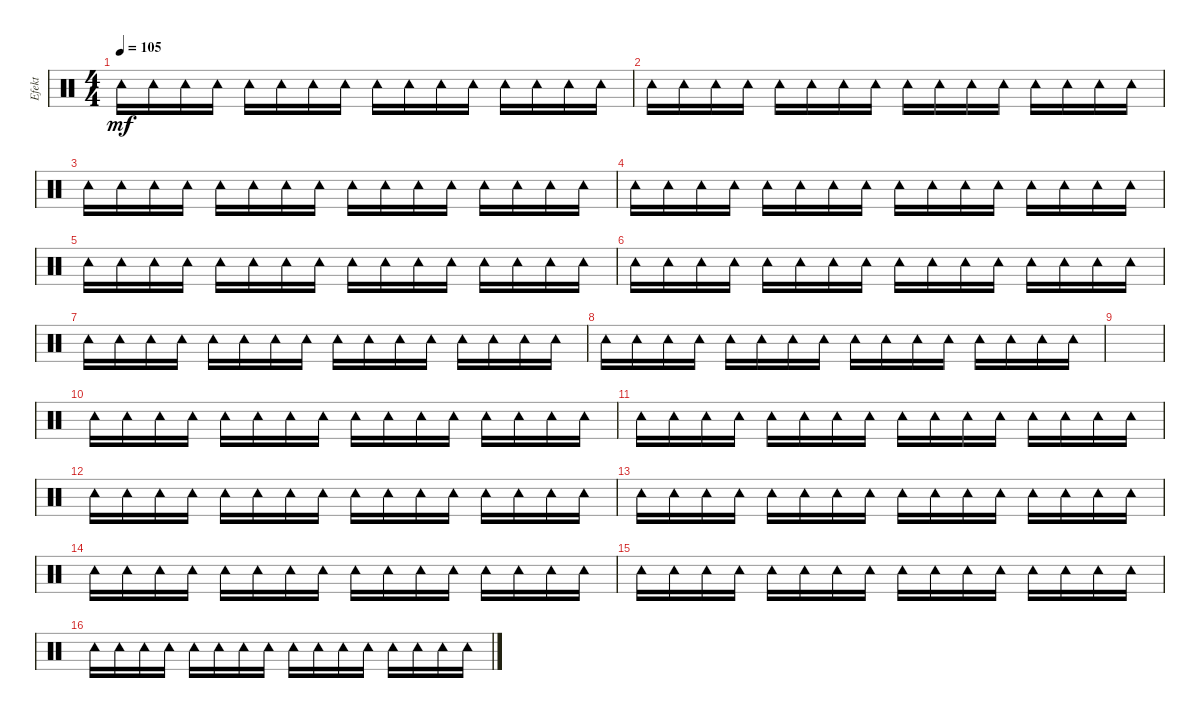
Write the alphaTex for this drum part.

\track ("Efekt" "Efekt") {instrument percussion}
\staff {score}
\articulation defaults
\ts (4 4)
\tempo 105
\clef neutral
\ks c "Tambourine (hit)".16{dy mf} "Tambourine (hit)".16 "Tambourine (hit)".16 "Tambourine (hit)".16 "Tambourine (hit)".16 "Tambourine (hit)".16 "Tambourine (hit)".16 "Tambourine (hit)".16 "Tambourine (hit)".16 "Tambourine (hit)".16 "Tambourine (hit)".16 "Tambourine (hit)".16 "Tambourine (hit)".16 "Tambourine (hit)".16 "Tambourine (hit)".16 "Tambourine (hit)".16
|
"Tambourine (hit)".16 "Tambourine (hit)".16 "Tambourine (hit)".16 "Tambourine (hit)".16 "Tambourine (hit)".16 "Tambourine (hit)".16 "Tambourine (hit)".16 "Tambourine (hit)".16 "Tambourine (hit)".16 "Tambourine (hit)".16 "Tambourine (hit)".16 "Tambourine (hit)".16 "Tambourine (hit)".16 "Tambourine (hit)".16 "Tambourine (hit)".16 "Tambourine (hit)".16 |
"Tambourine (hit)".16 "Tambourine (hit)".16 "Tambourine (hit)".16 "Tambourine (hit)".16 "Tambourine (hit)".16 "Tambourine (hit)".16 "Tambourine (hit)".16 "Tambourine (hit)".16 "Tambourine (hit)".16 "Tambourine (hit)".16 "Tambourine (hit)".16 "Tambourine (hit)".16 "Tambourine (hit)".16 "Tambourine (hit)".16 "Tambourine (hit)".16 "Tambourine (hit)".16 |
"Tambourine (hit)".16 "Tambourine (hit)".16 "Tambourine (hit)".16 "Tambourine (hit)".16 "Tambourine (hit)".16 "Tambourine (hit)".16 "Tambourine (hit)".16 "Tambourine (hit)".16 "Tambourine (hit)".16 "Tambourine (hit)".16 "Tambourine (hit)".16 "Tambourine (hit)".16 "Tambourine (hit)".16 "Tambourine (hit)".16 "Tambourine (hit)".16 "Tambourine (hit)".16 |
"Tambourine (hit)".16 "Tambourine (hit)".16 "Tambourine (hit)".16 "Tambourine (hit)".16 "Tambourine (hit)".16 "Tambourine (hit)".16 "Tambourine (hit)".16 "Tambourine (hit)".16 "Tambourine (hit)".16 "Tambourine (hit)".16 "Tambourine (hit)".16 "Tambourine (hit)".16 "Tambourine (hit)".16 "Tambourine (hit)".16 "Tambourine (hit)".16 "Tambourine (hit)".16 |
"Tambourine (hit)".16 "Tambourine (hit)".16 "Tambourine (hit)".16 "Tambourine (hit)".16 "Tambourine (hit)".16 "Tambourine (hit)".16 "Tambourine (hit)".16 "Tambourine (hit)".16 "Tambourine (hit)".16 "Tambourine (hit)".16 "Tambourine (hit)".16 "Tambourine (hit)".16 "Tambourine (hit)".16 "Tambourine (hit)".16 "Tambourine (hit)".16 "Tambourine (hit)".16 |
"Tambourine (hit)".16 "Tambourine (hit)".16 "Tambourine (hit)".16 "Tambourine (hit)".16 "Tambourine (hit)".16 "Tambourine (hit)".16 "Tambourine (hit)".16 "Tambourine (hit)".16 "Tambourine (hit)".16 "Tambourine (hit)".16 "Tambourine (hit)".16 "Tambourine (hit)".16 "Tambourine (hit)".16 "Tambourine (hit)".16 "Tambourine (hit)".16 "Tambourine (hit)".16 |
"Tambourine (hit)".16 "Tambourine (hit)".16 "Tambourine (hit)".16 "Tambourine (hit)".16 "Tambourine (hit)".16 "Tambourine (hit)".16 "Tambourine (hit)".16 "Tambourine (hit)".16 "Tambourine (hit)".16 "Tambourine (hit)".16 "Tambourine (hit)".16 "Tambourine (hit)".16 "Tambourine (hit)".16 "Tambourine (hit)".16 "Tambourine (hit)".16 "Tambourine (hit)".16 |
|
"Tambourine (hit)".16 "Tambourine (hit)".16 "Tambourine (hit)".16 "Tambourine (hit)".16 "Tambourine (hit)".16 "Tambourine (hit)".16 "Tambourine (hit)".16 "Tambourine (hit)".16 "Tambourine (hit)".16 "Tambourine (hit)".16 "Tambourine (hit)".16 "Tambourine (hit)".16 "Tambourine (hit)".16 "Tambourine (hit)".16 "Tambourine (hit)".16 "Tambourine (hit)".16 |
"Tambourine (hit)".16 "Tambourine (hit)".16 "Tambourine (hit)".16 "Tambourine (hit)".16 "Tambourine (hit)".16 "Tambourine (hit)".16 "Tambourine (hit)".16 "Tambourine (hit)".16 "Tambourine (hit)".16 "Tambourine (hit)".16 "Tambourine (hit)".16 "Tambourine (hit)".16 "Tambourine (hit)".16 "Tambourine (hit)".16 "Tambourine (hit)".16 "Tambourine (hit)".16 |
"Tambourine (hit)".16 "Tambourine (hit)".16 "Tambourine (hit)".16 "Tambourine (hit)".16 "Tambourine (hit)".16 "Tambourine (hit)".16 "Tambourine (hit)".16 "Tambourine (hit)".16 "Tambourine (hit)".16 "Tambourine (hit)".16 "Tambourine (hit)".16 "Tambourine (hit)".16 "Tambourine (hit)".16 "Tambourine (hit)".16 "Tambourine (hit)".16 "Tambourine (hit)".16 |
"Tambourine (hit)".16 "Tambourine (hit)".16 "Tambourine (hit)".16 "Tambourine (hit)".16 "Tambourine (hit)".16 "Tambourine (hit)".16 "Tambourine (hit)".16 "Tambourine (hit)".16 "Tambourine (hit)".16 "Tambourine (hit)".16 "Tambourine (hit)".16 "Tambourine (hit)".16 "Tambourine (hit)".16 "Tambourine (hit)".16 "Tambourine (hit)".16 "Tambourine (hit)".16 |
"Tambourine (hit)".16 "Tambourine (hit)".16 "Tambourine (hit)".16 "Tambourine (hit)".16 "Tambourine (hit)".16 "Tambourine (hit)".16 "Tambourine (hit)".16 "Tambourine (hit)".16 "Tambourine (hit)".16 "Tambourine (hit)".16 "Tambourine (hit)".16 "Tambourine (hit)".16 "Tambourine (hit)".16 "Tambourine (hit)".16 "Tambourine (hit)".16 "Tambourine (hit)".16 |
"Tambourine (hit)".16 "Tambourine (hit)".16 "Tambourine (hit)".16 "Tambourine (hit)".16 "Tambourine (hit)".16 "Tambourine (hit)".16 "Tambourine (hit)".16 "Tambourine (hit)".16 "Tambourine (hit)".16 "Tambourine (hit)".16 "Tambourine (hit)".16 "Tambourine (hit)".16 "Tambourine (hit)".16 "Tambourine (hit)".16 "Tambourine (hit)".16 "Tambourine (hit)".16 |
"Tambourine (hit)".16 "Tambourine (hit)".16 "Tambourine (hit)".16 "Tambourine (hit)".16 "Tambourine (hit)".16 "Tambourine (hit)".16 "Tambourine (hit)".16 "Tambourine (hit)".16 "Tambourine (hit)".16 "Tambourine (hit)".16 "Tambourine (hit)".16 "Tambourine (hit)".16 "Tambourine (hit)".16 "Tambourine (hit)".16 "Tambourine (hit)".16 "Tambourine (hit)".16
